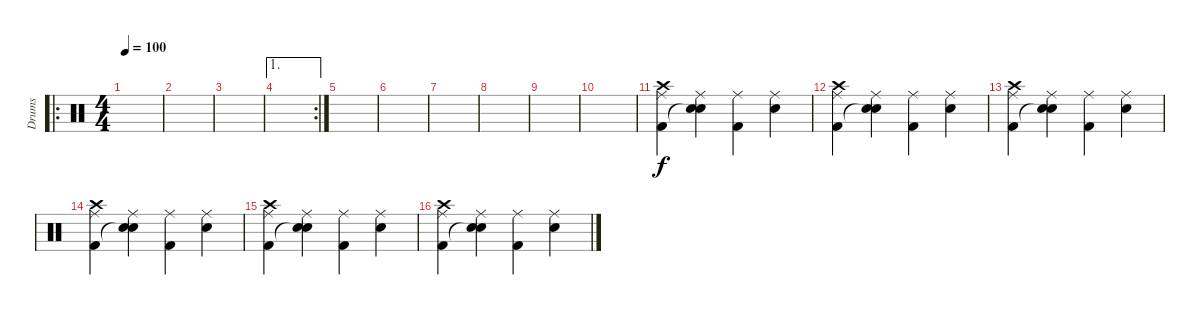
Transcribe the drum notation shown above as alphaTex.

\track ("Drums" "Drums") {instrument percussion}
\staff {score}
\articulation defaults
\ro
\ts (4 4)
\tempo 100
\clef neutral
\ks c
|
|
|
\ae 1
\rc 2
|
|
|
|
|
|
|
("Ride (middle)" "Crash high (hit)" "Kick (hit) 2").4 ("Ride (middle)" "Electric Snare (hit)" "Snare (hit)"{t}).4 ("Ride (middle)" "Kick (hit) 2").4 ("Ride (middle)" "Electric Snare (hit)").4 |
("Ride (middle)" "Crash high (hit)" "Kick (hit) 2").4 ("Ride (middle)" "Electric Snare (hit)" "Snare (hit)"{t}).4 ("Ride (middle)" "Kick (hit) 2").4 ("Ride (middle)" "Electric Snare (hit)").4 |
("Ride (middle)" "Crash high (hit)" "Kick (hit) 2").4 ("Ride (middle)" "Electric Snare (hit)" "Snare (hit)"{t}).4 ("Ride (middle)" "Kick (hit) 2").4 ("Ride (middle)" "Electric Snare (hit)").4 |
("Ride (middle)" "Crash high (hit)" "Kick (hit) 2").4 ("Ride (middle)" "Electric Snare (hit)" "Snare (hit)"{t}).4 ("Ride (middle)" "Kick (hit) 2").4 ("Ride (middle)" "Electric Snare (hit)").4 |
("Ride (middle)" "Crash high (hit)" "Kick (hit) 2").4 ("Ride (middle)" "Electric Snare (hit)" "Snare (hit)"{t}).4 ("Ride (middle)" "Kick (hit) 2").4 ("Ride (middle)" "Electric Snare (hit)").4 |
("Ride (middle)" "Crash high (hit)" "Kick (hit) 2").4 ("Ride (middle)" "Electric Snare (hit)" "Snare (hit)"{t}).4 ("Ride (middle)" "Kick (hit) 2").4 ("Ride (middle)" "Electric Snare (hit)").4
